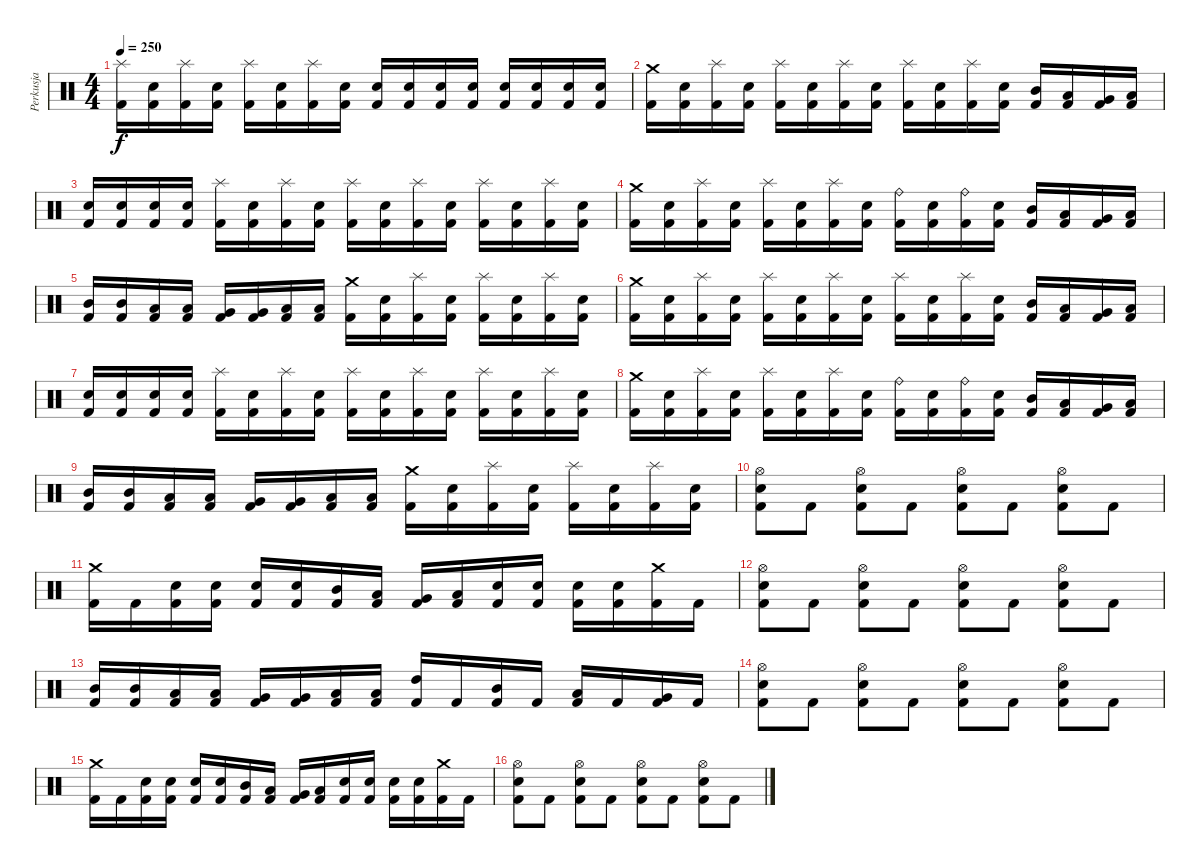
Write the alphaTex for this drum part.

\track ("Perkusja" "Perkusja") {instrument percussion}
\staff {score}
\articulation defaults
\ts (4 4)
\tempo 250
\clef neutral
\ks c
("Splash (hit)" "Kick (hit) 2").16{dy f} ("Snare (hit) 2" "Kick (hit) 2").16 ("Splash (hit)" "Kick (hit) 2").16 ("Snare (hit) 2" "Kick (hit) 2").16 ("Splash (hit)" "Kick (hit) 2").16 ("Snare (hit) 2" "Kick (hit) 2").16 ("Splash (hit)" "Kick (hit) 2").16 ("Snare (hit) 2" "Kick (hit) 2").16 ("Snare (hit) 2" "Kick (hit) 2").16 ("Snare (hit) 2" "Kick (hit) 2").16 ("Snare (hit) 2" "Kick (hit) 2").16 ("Snare (hit) 2" "Kick (hit) 2").16 ("Electric Snare (hit)" "Kick (hit) 2").16 ("Electric Snare (hit)" "Kick (hit) 2").16 ("Electric Snare (hit)" "Kick (hit) 2").16 ("Electric Snare (hit)" "Kick (hit) 2").16 |
("Crash medium (hit)" "Kick (hit) 2").16 ("Snare (hit) 2" "Kick (hit) 2").16 ("Splash (hit)" "Kick (hit) 2").16 ("Snare (hit) 2" "Kick (hit) 2").16 ("Splash (hit)" "Kick (hit) 2").16 ("Snare (hit) 2" "Kick (hit) 2").16 ("Splash (hit)" "Kick (hit) 2").16 ("Snare (hit) 2" "Kick (hit) 2").16 ("Splash (hit)" "Kick (hit) 2").16 ("Snare (hit) 2" "Kick (hit) 2").16 ("Splash (hit)" "Kick (hit) 2").16 ("Snare (hit) 2" "Kick (hit) 2").16 ("Mid Tom (hit)" "Kick (hit) 2").16 ("Low Tom (hit)" "Kick (hit) 2").16 ("Very Low Tom (hit)" "Kick (hit) 2").16 ("Low Floor Tom (hit)" "Kick (hit) 2").16 |
("Electric Snare (hit)" "Kick (hit) 2").16 ("Electric Snare (hit)" "Kick (hit) 2").16 ("Electric Snare (hit)" "Kick (hit) 2").16 ("Electric Snare (hit)" "Kick (hit) 2").16 ("Splash (hit)" "Kick (hit) 2").16 ("Snare (hit) 2" "Kick (hit) 2").16 ("Splash (hit)" "Kick (hit) 2").16 ("Snare (hit) 2" "Kick (hit) 2").16 ("Splash (hit)" "Kick (hit) 2").16 ("Snare (hit) 2" "Kick (hit) 2").16 ("Splash (hit)" "Kick (hit) 2").16 ("Snare (hit) 2" "Kick (hit) 2").16 ("Splash (hit)" "Kick (hit) 2").16 ("Snare (hit) 2" "Kick (hit) 2").16 ("Splash (hit)" "Kick (hit) 2").16 ("Snare (hit) 2" "Kick (hit) 2").16 |
("Crash medium (hit)" "Kick (hit) 2").16 ("Snare (hit) 2" "Kick (hit) 2").16 ("Splash (hit)" "Kick (hit) 2").16 ("Snare (hit) 2" "Kick (hit) 2").16 ("Splash (hit)" "Kick (hit) 2").16 ("Snare (hit) 2" "Kick (hit) 2").16 ("Splash (hit)" "Kick (hit) 2").16 ("Snare (hit) 2" "Kick (hit) 2").16 ("Ride (bell)" "Kick (hit) 2").16 ("Snare (hit) 2" "Kick (hit) 2").16 ("Ride (bell)" "Kick (hit) 2").16 ("Snare (hit) 2" "Kick (hit) 2").16 ("Mid Tom (hit)" "Kick (hit) 2").16 ("Low Tom (hit)" "Kick (hit) 2").16 ("Very Low Tom (hit)" "Kick (hit) 2").16 ("Low Floor Tom (hit)" "Kick (hit) 2").16 |
("Mid Tom (hit)" "Kick (hit) 2").16 ("Mid Tom (hit)" "Kick (hit) 2").16 ("Low Tom (hit)" "Kick (hit) 2").16 ("Low Tom (hit)" "Kick (hit) 2").16 ("Very Low Tom (hit)" "Kick (hit) 2").16 ("Very Low Tom (hit)" "Kick (hit) 2").16 ("Low Floor Tom (hit)" "Kick (hit) 2").16 ("Low Floor Tom (hit)" "Kick (hit) 2").16 ("Crash medium (hit)" "Kick (hit) 2").16 ("Snare (hit) 2" "Kick (hit) 2").16 ("Splash (hit)" "Kick (hit) 2").16 ("Snare (hit) 2" "Kick (hit) 2").16 ("Splash (hit)" "Kick (hit) 2").16 ("Snare (hit) 2" "Kick (hit) 2").16 ("Splash (hit)" "Kick (hit) 2").16 ("Snare (hit) 2" "Kick (hit) 2").16 |
("Crash medium (hit)" "Kick (hit) 2").16 ("Snare (hit) 2" "Kick (hit) 2").16 ("Splash (hit)" "Kick (hit) 2").16 ("Snare (hit) 2" "Kick (hit) 2").16 ("Splash (hit)" "Kick (hit) 2").16 ("Snare (hit) 2" "Kick (hit) 2").16 ("Splash (hit)" "Kick (hit) 2").16 ("Snare (hit) 2" "Kick (hit) 2").16 ("Splash (hit)" "Kick (hit) 2").16 ("Snare (hit) 2" "Kick (hit) 2").16 ("Splash (hit)" "Kick (hit) 2").16 ("Snare (hit) 2" "Kick (hit) 2").16 ("Mid Tom (hit)" "Kick (hit) 2").16 ("Low Tom (hit)" "Kick (hit) 2").16 ("Very Low Tom (hit)" "Kick (hit) 2").16 ("Low Floor Tom (hit)" "Kick (hit) 2").16 |
("Electric Snare (hit)" "Kick (hit) 2").16 ("Electric Snare (hit)" "Kick (hit) 2").16 ("Electric Snare (hit)" "Kick (hit) 2").16 ("Electric Snare (hit)" "Kick (hit) 2").16 ("Splash (hit)" "Kick (hit) 2").16 ("Snare (hit) 2" "Kick (hit) 2").16 ("Splash (hit)" "Kick (hit) 2").16 ("Snare (hit) 2" "Kick (hit) 2").16 ("Splash (hit)" "Kick (hit) 2").16 ("Snare (hit) 2" "Kick (hit) 2").16 ("Splash (hit)" "Kick (hit) 2").16 ("Snare (hit) 2" "Kick (hit) 2").16 ("Splash (hit)" "Kick (hit) 2").16 ("Snare (hit) 2" "Kick (hit) 2").16 ("Splash (hit)" "Kick (hit) 2").16 ("Snare (hit) 2" "Kick (hit) 2").16 |
("Crash medium (hit)" "Kick (hit) 2").16 ("Snare (hit) 2" "Kick (hit) 2").16 ("Splash (hit)" "Kick (hit) 2").16 ("Snare (hit) 2" "Kick (hit) 2").16 ("Splash (hit)" "Kick (hit) 2").16 ("Snare (hit) 2" "Kick (hit) 2").16 ("Splash (hit)" "Kick (hit) 2").16 ("Snare (hit) 2" "Kick (hit) 2").16 ("Ride (bell)" "Kick (hit) 2").16 ("Snare (hit) 2" "Kick (hit) 2").16 ("Ride (bell)" "Kick (hit) 2").16 ("Snare (hit) 2" "Kick (hit) 2").16 ("Mid Tom (hit)" "Kick (hit) 2").16 ("Low Tom (hit)" "Kick (hit) 2").16 ("Very Low Tom (hit)" "Kick (hit) 2").16 ("Low Floor Tom (hit)" "Kick (hit) 2").16 |
("Mid Tom (hit)" "Kick (hit) 2").16 ("Mid Tom (hit)" "Kick (hit) 2").16 ("Low Tom (hit)" "Kick (hit) 2").16 ("Low Tom (hit)" "Kick (hit) 2").16 ("Very Low Tom (hit)" "Kick (hit) 2").16 ("Very Low Tom (hit)" "Kick (hit) 2").16 ("Low Floor Tom (hit)" "Kick (hit) 2").16 ("Low Floor Tom (hit)" "Kick (hit) 2").16 ("Crash medium (hit)" "Kick (hit) 2").16 ("Snare (hit) 2" "Kick (hit) 2").16 ("Splash (hit)" "Kick (hit) 2").16 ("Snare (hit) 2" "Kick (hit) 2").16 ("Splash (hit)" "Kick (hit) 2").16 ("Snare (hit) 2" "Kick (hit) 2").16 ("Splash (hit)" "Kick (hit) 2").16 ("Snare (hit) 2" "Kick (hit) 2").16 |
("Hi-Hat (open)" "Snare (hit) 2" "Kick (hit) 2").8 "Kick (hit) 2".8 ("Hi-Hat (open)" "Snare (hit) 2" "Kick (hit) 2").8 "Kick (hit) 2".8 ("Hi-Hat (open)" "Snare (hit) 2" "Kick (hit) 2").8 "Kick (hit) 2".8 ("Hi-Hat (open)" "Snare (hit) 2" "Kick (hit) 2").8 "Kick (hit) 2".8 |
("Crash medium (hit)" "Kick (hit) 2").16 "Kick (hit) 2".16 ("Electric Snare (hit)" "Kick (hit) 2").16 ("Electric Snare (hit)" "Kick (hit) 2").16 ("Electric Snare (hit)" "Kick (hit) 2").16 ("Electric Snare (hit)" "Kick (hit) 2").16 ("Mid Tom (hit)" "Kick (hit) 2").16 ("Low Tom (hit)" "Kick (hit) 2").16 ("Very Low Tom (hit)" "Kick (hit) 2").16 ("Low Floor Tom (hit)" "Kick (hit) 2").16 ("Snare (hit) 2" "Kick (hit) 2").16 ("Snare (hit) 2" "Kick (hit) 2").16 ("Snare (hit) 2" "Kick (hit) 2").16 ("Snare (hit) 2" "Kick (hit) 2").16 ("Crash medium (hit)" "Kick (hit) 2").16 "Kick (hit) 2".16 |
("Hi-Hat (open)" "Snare (hit) 2" "Kick (hit) 2").8 "Kick (hit) 2".8 ("Hi-Hat (open)" "Snare (hit) 2" "Kick (hit) 2").8 "Kick (hit) 2".8 ("Hi-Hat (open)" "Snare (hit) 2" "Kick (hit) 2").8 "Kick (hit) 2".8 ("Hi-Hat (open)" "Snare (hit) 2" "Kick (hit) 2").8 "Kick (hit) 2".8 |
("Mid Tom (hit)" "Kick (hit) 2").16 ("Mid Tom (hit)" "Kick (hit) 2").16 ("Low Tom (hit)" "Kick (hit) 2").16 ("Low Tom (hit)" "Kick (hit) 2").16 ("Very Low Tom (hit)" "Kick (hit) 2").16 ("Very Low Tom (hit)" "Kick (hit) 2").16 ("Low Floor Tom (hit)" "Kick (hit) 2").16 ("Low Floor Tom (hit)" "Kick (hit) 2").16 ("High Tom (hit)" "Kick (hit) 2").16 "Kick (hit) 2".16 ("Mid Tom (hit)" "Kick (hit) 2").16 "Kick (hit) 2".16 ("Low Tom (hit)" "Kick (hit) 2").16 "Kick (hit) 2".16 ("Very Low Tom (hit)" "Kick (hit) 2").16 "Kick (hit) 2".16 |
("Hi-Hat (open)" "Snare (hit) 2" "Kick (hit) 2").8 "Kick (hit) 2".8 ("Hi-Hat (open)" "Snare (hit) 2" "Kick (hit) 2").8 "Kick (hit) 2".8 ("Hi-Hat (open)" "Snare (hit) 2" "Kick (hit) 2").8 "Kick (hit) 2".8 ("Hi-Hat (open)" "Snare (hit) 2" "Kick (hit) 2").8 "Kick (hit) 2".8 |
("Crash medium (hit)" "Kick (hit) 2").16 "Kick (hit) 2".16 ("Electric Snare (hit)" "Kick (hit) 2").16 ("Electric Snare (hit)" "Kick (hit) 2").16 ("Electric Snare (hit)" "Kick (hit) 2").16 ("Electric Snare (hit)" "Kick (hit) 2").16 ("Mid Tom (hit)" "Kick (hit) 2").16 ("Low Tom (hit)" "Kick (hit) 2").16 ("Very Low Tom (hit)" "Kick (hit) 2").16 ("Low Floor Tom (hit)" "Kick (hit) 2").16 ("Snare (hit) 2" "Kick (hit) 2").16 ("Snare (hit) 2" "Kick (hit) 2").16 ("Snare (hit) 2" "Kick (hit) 2").16 ("Snare (hit) 2" "Kick (hit) 2").16 ("Crash medium (hit)" "Kick (hit) 2").16 "Kick (hit) 2".16 |
("Hi-Hat (open)" "Snare (hit) 2" "Kick (hit) 2").8 "Kick (hit) 2".8 ("Hi-Hat (open)" "Snare (hit) 2" "Kick (hit) 2").8 "Kick (hit) 2".8 ("Hi-Hat (open)" "Snare (hit) 2" "Kick (hit) 2").8 "Kick (hit) 2".8 ("Hi-Hat (open)" "Snare (hit) 2" "Kick (hit) 2").8 "Kick (hit) 2".8
